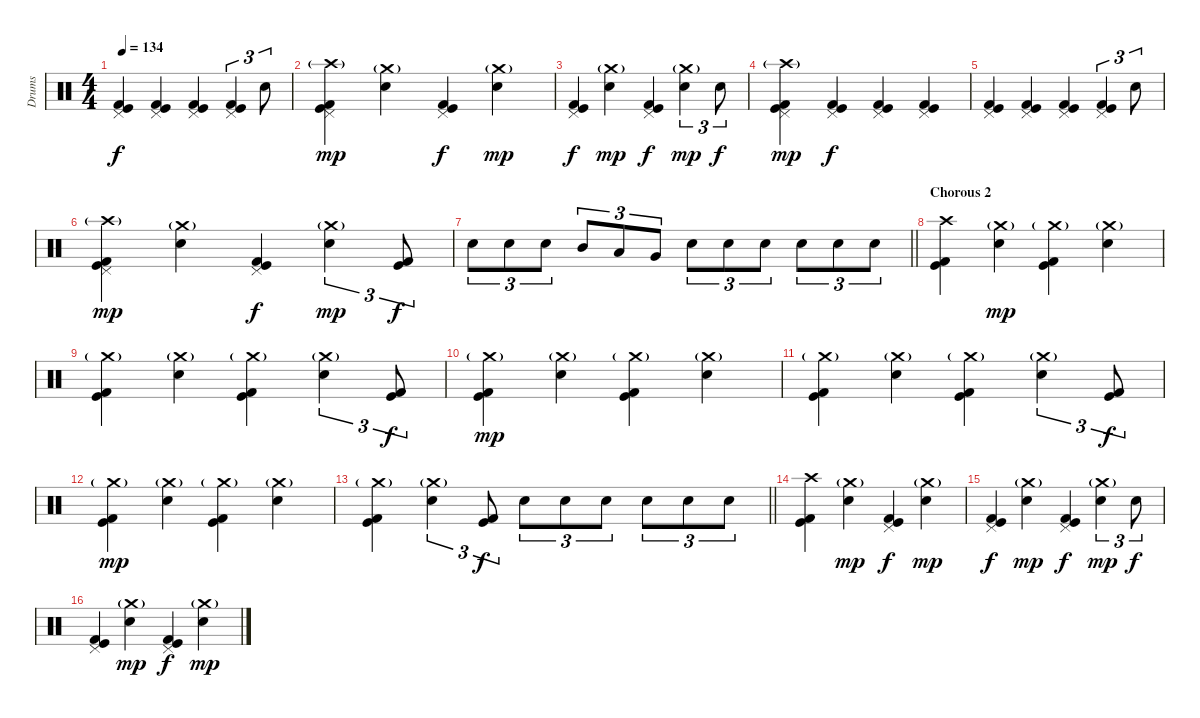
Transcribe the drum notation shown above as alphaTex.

\track ("Drums" "Drums") {instrument percussion}
\staff {score}
\articulation defaults
\ts (4 4)
\tempo 134
\clef neutral
\ks c
("Pedal Hi-Hat (hit)" "Kick (hit)" "Kick (hit) 2").4{dy f} ("Pedal Hi-Hat (hit)" "Kick (hit)" "Kick (hit) 2").4 ("Pedal Hi-Hat (hit)" "Kick (hit)" "Kick (hit) 2").4 ("Pedal Hi-Hat (hit)" "Kick (hit)" "Kick (hit) 2").4{tu (3 2)} "Electric Snare (hit)".8{tu (3 2)} |
("Pedal Hi-Hat (hit)" "Crash high (hit)"{g} "Kick (hit)" "Kick (hit) 2").4{dy mp} ("Crash medium (hit)"{g} "Electric Snare (hit)").4 ("Pedal Hi-Hat (hit)" "Kick (hit)" "Kick (hit) 2").4{dy f} ("Crash medium (hit)"{g} "Electric Snare (hit)").4{dy mp} |
("Pedal Hi-Hat (hit)" "Kick (hit)" "Kick (hit) 2").4{dy f} ("Crash medium (hit)"{g} "Electric Snare (hit)").4{dy mp} ("Pedal Hi-Hat (hit)" "Kick (hit)" "Kick (hit) 2").4{dy f} ("Crash medium (hit)"{g} "Electric Snare (hit)").4{tu (3 2) dy mp} "Electric Snare (hit)".8{tu (3 2) dy f} |
("Pedal Hi-Hat (hit)" "Crash high (hit)"{g} "Kick (hit)" "Kick (hit) 2").4{dy mp} ("Pedal Hi-Hat (hit)" "Kick (hit)" "Kick (hit) 2").4{dy f} ("Pedal Hi-Hat (hit)" "Kick (hit)" "Kick (hit) 2").4 ("Pedal Hi-Hat (hit)" "Kick (hit)" "Kick (hit) 2").4 |
("Pedal Hi-Hat (hit)" "Kick (hit)" "Kick (hit) 2").4 ("Pedal Hi-Hat (hit)" "Kick (hit)" "Kick (hit) 2").4 ("Pedal Hi-Hat (hit)" "Kick (hit)" "Kick (hit) 2").4 ("Pedal Hi-Hat (hit)" "Kick (hit)" "Kick (hit) 2").4{tu (3 2)} "Electric Snare (hit)".8{tu (3 2)} |
("Pedal Hi-Hat (hit)" "Crash high (hit)"{g} "Kick (hit)" "Kick (hit) 2").4{dy mp} ("Crash medium (hit)"{g} "Electric Snare (hit)").4 ("Pedal Hi-Hat (hit)" "Kick (hit)" "Kick (hit) 2").4{dy f} ("Crash medium (hit)"{g} "Electric Snare (hit)").4{tu (3 2) dy mp} ("Kick (hit)" "Kick (hit) 2").8{tu (3 2) dy f} |
\barLineRight lightlight "Electric Snare (hit)".8{tu (3 2)} "Electric Snare (hit)".8{tu (3 2)} "Electric Snare (hit)".8{tu (3 2)} "Mid Tom (hit)".8{tu (3 2)} "Low Tom (hit)".8{tu (3 2)} "Very Low Tom (hit)".8{tu (3 2)} "Electric Snare (hit)".8{tu (3 2)} "Electric Snare (hit)".8{tu (3 2)} "Electric Snare (hit)".8{tu (3 2)} "Electric Snare (hit)".8{tu (3 2)} "Electric Snare (hit)".8{tu (3 2)} "Electric Snare (hit)".8{tu (3 2)}
|
\section ("" "Chorous 2")
("Crash high (hit)" "Kick (hit)" "Kick (hit) 2").4 ("Crash medium (hit)"{g} "Electric Snare (hit)").4{dy mp} ("Crash medium (hit)"{g} "Kick (hit)" "Kick (hit) 2").4 ("Crash medium (hit)"{g} "Electric Snare (hit)").4 |
("Crash medium (hit)"{g} "Kick (hit)" "Kick (hit) 2").4 ("Crash medium (hit)"{g} "Electric Snare (hit)").4 ("Crash medium (hit)"{g} "Kick (hit)" "Kick (hit) 2").4 ("Crash medium (hit)"{g} "Electric Snare (hit)").4{tu (3 2)} ("Kick (hit)" "Kick (hit) 2").8{tu (3 2) dy f} |
("Crash medium (hit)"{g} "Kick (hit)" "Kick (hit) 2").4{dy mp} ("Crash medium (hit)"{g} "Electric Snare (hit)").4 ("Crash medium (hit)"{g} "Kick (hit)" "Kick (hit) 2").4 ("Crash medium (hit)"{g} "Electric Snare (hit)").4 |
("Crash medium (hit)"{g} "Kick (hit)" "Kick (hit) 2").4 ("Crash medium (hit)"{g} "Electric Snare (hit)").4 ("Crash medium (hit)"{g} "Kick (hit)" "Kick (hit) 2").4 ("Crash medium (hit)"{g} "Electric Snare (hit)").4{tu (3 2)} ("Kick (hit)" "Kick (hit) 2").8{tu (3 2) dy f} |
("Crash medium (hit)"{g} "Kick (hit)" "Kick (hit) 2").4{dy mp} ("Crash medium (hit)"{g} "Electric Snare (hit)").4 ("Crash medium (hit)"{g} "Kick (hit)" "Kick (hit) 2").4 ("Crash medium (hit)"{g} "Electric Snare (hit)").4 |
\barLineRight lightlight
("Crash medium (hit)"{g} "Kick (hit)" "Kick (hit) 2").4 ("Crash medium (hit)"{g} "Electric Snare (hit)").4{tu (3 2)} ("Kick (hit)" "Kick (hit) 2").8{tu (3 2) dy f} "Electric Snare (hit)".8{tu (3 2)} "Electric Snare (hit)".8{tu (3 2)} "Electric Snare (hit)".8{tu (3 2)} "Electric Snare (hit)".8{tu (3 2)} "Electric Snare (hit)".8{tu (3 2)} "Electric Snare (hit)".8{tu (3 2)} |
\section ("" "")
("Crash high (hit)" "Kick (hit)" "Kick (hit) 2").4 ("Crash medium (hit)"{g} "Electric Snare (hit)").4{dy mp} ("Pedal Hi-Hat (hit)" "Kick (hit)" "Kick (hit) 2").4{dy f} ("Crash medium (hit)"{g} "Electric Snare (hit)").4{dy mp} |
("Pedal Hi-Hat (hit)" "Kick (hit)" "Kick (hit) 2").4{dy f} ("Crash medium (hit)"{g} "Electric Snare (hit)").4{dy mp} ("Pedal Hi-Hat (hit)" "Kick (hit)" "Kick (hit) 2").4{dy f} ("Crash medium (hit)"{g} "Electric Snare (hit)").4{tu (3 2) dy mp} "Electric Snare (hit)".8{tu (3 2) dy f} |
("Pedal Hi-Hat (hit)" "Kick (hit)" "Kick (hit) 2").4 ("Crash medium (hit)"{g} "Electric Snare (hit)").4{dy mp} ("Pedal Hi-Hat (hit)" "Kick (hit)" "Kick (hit) 2").4{dy f} ("Crash medium (hit)"{g} "Electric Snare (hit)").4{dy mp}
